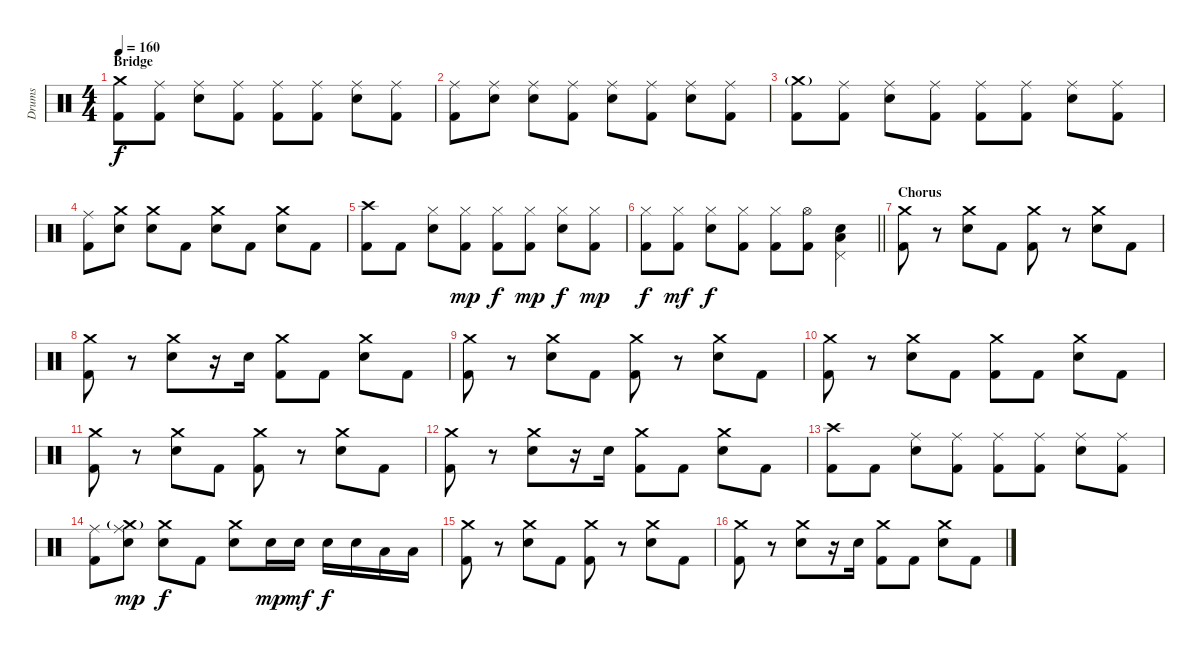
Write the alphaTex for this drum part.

\track ("Drums" "Drums") {instrument percussion}
\staff {score}
\articulation defaults
\ts (4 4)
\section ("" "Bridge")
\tempo 160
\clef neutral
\ks c
("Crash medium (hit)" "Kick (hit) 2").8{dy f} ("Ride (middle)" "Kick (hit) 2").8 ("Ride (middle)" "Electric Snare (hit)").8 ("Ride (middle)" "Kick (hit) 2").8 ("Ride (middle)" "Kick (hit) 2").8 ("Ride (middle)" "Kick (hit) 2").8 ("Ride (middle)" "Electric Snare (hit)").8 ("Ride (middle)" "Kick (hit) 2").8 |
("Ride (middle)" "Kick (hit) 2").8 ("Ride (middle)" "Electric Snare (hit)").8 ("Ride (middle)" "Electric Snare (hit)").8 ("Ride (middle)" "Kick (hit) 2").8 ("Ride (middle)" "Electric Snare (hit)").8 ("Ride (middle)" "Kick (hit) 2").8 ("Ride (middle)" "Electric Snare (hit)").8 ("Ride (middle)" "Kick (hit) 2").8 |
("Crash medium (hit)"{g} "Kick (hit) 2").8 ("Ride (middle)" "Kick (hit) 2").8 ("Ride (middle)" "Electric Snare (hit)").8 ("Ride (middle)" "Kick (hit) 2").8 ("Ride (middle)" "Kick (hit) 2").8 ("Ride (middle)" "Kick (hit) 2").8 ("Ride (middle)" "Electric Snare (hit)").8 ("Ride (middle)" "Kick (hit) 2").8 |
("Ride (middle)" "Kick (hit) 2").8 ("Crash medium (hit)" "Electric Snare (hit)").8 ("Crash medium (hit)" "Electric Snare (hit)").8 "Kick (hit) 2".8 ("Crash medium (hit)" "Electric Snare (hit)").8 "Kick (hit) 2".8 ("Crash medium (hit)" "Electric Snare (hit)").8 "Kick (hit) 2".8 |
("Crash high (hit)" "Kick (hit) 2").8 "Kick (hit) 2".8 ("Hi-Hat (closed)" "Electric Snare (hit)").8 ("Hi-Hat (closed)" "Kick (hit) 2").8{dy mp} ("Hi-Hat (closed)" "Kick (hit) 2").8{dy f} ("Hi-Hat (closed)" "Kick (hit) 2").8{dy mp} ("Hi-Hat (closed)" "Electric Snare (hit)").8{dy f} ("Hi-Hat (closed)" "Kick (hit) 2").8{dy mp} |
\barLineRight lightlight
("Hi-Hat (closed)" "Kick (hit) 2").8{dy f} ("Hi-Hat (closed)" "Kick (hit) 2").8{dy mf} ("Hi-Hat (closed)" "Electric Snare (hit)").8{dy f} ("Hi-Hat (closed)" "Kick (hit) 2").8 ("Hi-Hat (closed)" "Kick (hit) 2").8 ("Hi-Hat (open)" "Kick (hit) 2").8 ("Pedal Hi-Hat (hit)" "Low Floor Tom (hit)" "Electric Snare (hit)").4 |
\section ("" "Chorus")
("Crash medium (hit)" "Kick (hit) 2").8 r.8 ("Crash medium (hit)" "Electric Snare (hit)").8 "Kick (hit) 2".8 ("Crash medium (hit)" "Kick (hit) 2").8 r.8 ("Crash medium (hit)" "Electric Snare (hit)").8 "Kick (hit) 2".8 |
("Crash medium (hit)" "Kick (hit) 2").8 r.8 ("Crash medium (hit)" "Electric Snare (hit)").8 r.16 "Electric Snare (hit)".16 ("Crash medium (hit)" "Kick (hit) 2").8 "Kick (hit) 2".8 ("Crash medium (hit)" "Electric Snare (hit)").8 "Kick (hit) 2".8 |
("Crash medium (hit)" "Kick (hit) 2").8 r.8 ("Crash medium (hit)" "Electric Snare (hit)").8 "Kick (hit) 2".8 ("Crash medium (hit)" "Kick (hit) 2").8 r.8 ("Crash medium (hit)" "Electric Snare (hit)").8 "Kick (hit) 2".8 |
("Crash medium (hit)" "Kick (hit) 2").8 r.8 ("Crash medium (hit)" "Electric Snare (hit)").8 "Kick (hit) 2".8 ("Crash medium (hit)" "Kick (hit) 2").8 "Kick (hit) 2".8 ("Crash medium (hit)" "Electric Snare (hit)").8 "Kick (hit) 2".8 |
("Crash medium (hit)" "Kick (hit) 2").8 r.8 ("Crash medium (hit)" "Electric Snare (hit)").8 "Kick (hit) 2".8 ("Crash medium (hit)" "Kick (hit) 2").8 r.8 ("Crash medium (hit)" "Electric Snare (hit)").8 "Kick (hit) 2".8 |
("Crash medium (hit)" "Kick (hit) 2").8 r.8 ("Crash medium (hit)" "Electric Snare (hit)").8 r.16 "Electric Snare (hit)".16 ("Crash medium (hit)" "Kick (hit) 2").8 "Kick (hit) 2".8 ("Crash medium (hit)" "Electric Snare (hit)").8 "Kick (hit) 2".8 |
("Crash high (hit)" "Kick (hit) 2").8 "Kick (hit) 2".8 ("Ride (middle)" "Electric Snare (hit)").8 ("Ride (middle)" "Kick (hit) 2").8 ("Ride (middle)" "Kick (hit) 2").8 ("Ride (middle)" "Kick (hit) 2").8 ("Ride (middle)" "Electric Snare (hit)").8 ("Ride (middle)" "Kick (hit) 2").8 |
("Ride (middle)" "Kick (hit) 2").8 ("Crash medium (hit)"{g} "Ride (middle)" "Electric Snare (hit)").8{dy mp} ("Crash medium (hit)" "Electric Snare (hit)").8{dy f} "Kick (hit) 2".8 ("Crash medium (hit)" "Electric Snare (hit)").8 "Electric Snare (hit)".16{dy mp} "Electric Snare (hit)".16{dy mf} "Electric Snare (hit)".16{dy f} "Electric Snare (hit)".16 "Low Floor Tom (hit)".16 "Low Floor Tom (hit)".16 |
("Crash medium (hit)" "Kick (hit) 2").8 r.8 ("Crash medium (hit)" "Electric Snare (hit)").8 "Kick (hit) 2".8 ("Crash medium (hit)" "Kick (hit) 2").8 r.8 ("Crash medium (hit)" "Electric Snare (hit)").8 "Kick (hit) 2".8 |
("Crash medium (hit)" "Kick (hit) 2").8 r.8 ("Crash medium (hit)" "Electric Snare (hit)").8 r.16 "Electric Snare (hit)".16 ("Crash medium (hit)" "Kick (hit) 2").8 "Kick (hit) 2".8 ("Crash medium (hit)" "Electric Snare (hit)").8 "Kick (hit) 2".8
